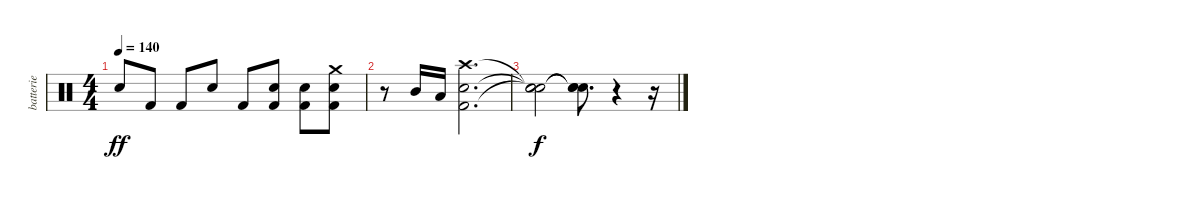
\track ("batterie" "batterie") {instrument percussion}
\staff {score}
\articulation defaults
\ts (4 4)
\tempo 140
\clef neutral
\ks c "Electric Snare (hit)".8{dy ff} "Kick (hit) 2".8 "Kick (hit) 2".8 "Electric Snare (hit)".8 "Kick (hit) 2".8
("Kick (hit) 2" "Electric Snare (hit)").8 ("Kick (hit) 2" "Electric Snare (hit)").8 ("Kick (hit) 2" "Electric Snare (hit)" "Crash medium (hit)").8 |
r.8 "Mid Tom (hit)".16 "Low Tom (hit)".16 ("Kick (hit) 2" "Electric Snare (hit)" "Crash high (hit)").2{d} |
("Snare (hit)"{t} "Snare (hit)"{t} "Snare (hit)"{t}).2{dy f} ("Snare (hit)"{t} "Snare (hit)"{t} "Snare (hit)"{t}).8{d} r.4 r.16
